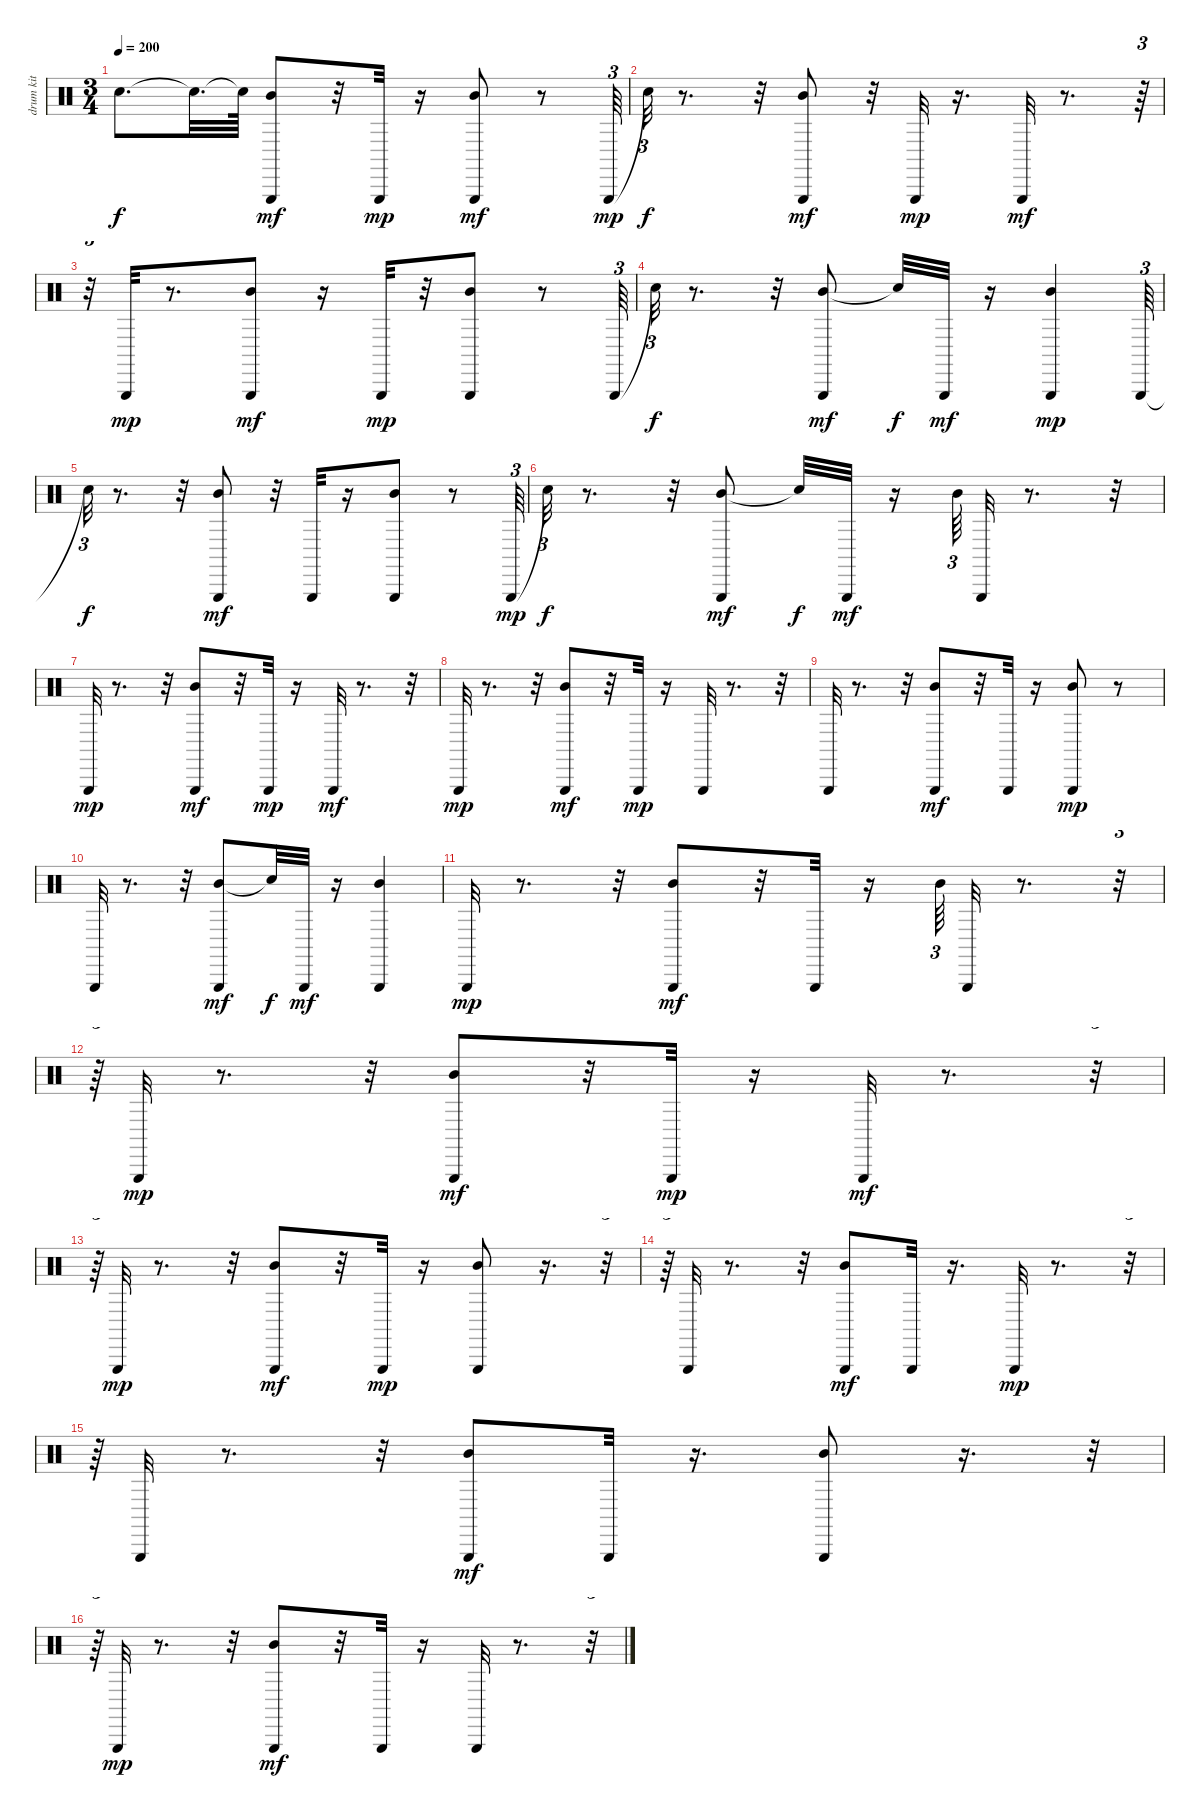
\track (" drum kit (hi-hat/cymbals)" " drum kit ") {instrument percussion}
\staff {score}
\articulation defaults
\ts (3 4)
\tempo 200
\clef neutral
\ks c "Snare (hit)"{t}.8{d dy f} "Snare (hit)"{t}.32{d} "Snare (hit)"{t}.64
("Mid Tom (hit)" "Triangle (hit)").8{dy mf} r.32 "Triangle (hit)".32{dy mp} r.16 ("Mid Tom (hit)" "Triangle (hit)").8{dy mf} r.8 "Triangle (hit)".64{tu (3 2) dy mp} |
"Snare (hit)"{t}.32{tu (3 2) dy f} r.8{d} r.32 ("Mid Tom (hit)" "Triangle (hit)").8{dy mf} r.32 "Triangle (hit)".32{dy mp} r.16{d} "Triangle (hit)".32{dy mf} r.8{d} r.64{tu (3 2)} |
r.32{tu (3 2)} "Triangle (hit)".32{dy mp} r.8{d} ("Mid Tom (hit)" "Triangle (hit)").8{dy mf} r.16 "Triangle (hit)".32{dy mp} r.32 ("Mid Tom (hit)" "Triangle (hit)").8 r.8 "Triangle (hit)".64{tu (3 2)} |
"Snare (hit)"{t}.32{tu (3 2) dy f} r.8{d} r.32 ("Mid Tom (hit)" "Triangle (hit)").8{dy mf} "Snare (hit)"{t}.32{dy f} "Triangle (hit)".32{dy mf} r.16 ("Mid Tom (hit)" "Triangle (hit)").4{dy mp} "Triangle (hit)".64{tu (3 2)} |
"Snare (hit)"{t}.32{tu (3 2) dy f} r.8{d} r.32 ("Mid Tom (hit)" "Triangle (hit)").8{dy mf} r.32 "Triangle (hit)".32 r.16 ("Mid Tom (hit)" "Triangle (hit)").8 r.8 "Triangle (hit)".64{tu (3 2) dy mp} |
"Snare (hit)"{t}.32{tu (3 2) dy f} r.8{d} r.32 ("Mid Tom (hit)" "Triangle (hit)").8{dy mf} "Snare (hit)"{t}.32{dy f} "Triangle (hit)".32{dy mf} r.16 "Mid Tom (hit)".64{tu (3 2)} "Triangle (hit)".32 r.8{d} r.32 |
"Triangle (hit)".32{dy mp} r.8{d} r.32 ("Mid Tom (hit)" "Triangle (hit)").8{dy mf} r.32 "Triangle (hit)".32{dy mp} r.16 "Triangle (hit)".32{dy mf} r.8{d} r.32 |
"Triangle (hit)".32{dy mp} r.8{d} r.32 ("Mid Tom (hit)" "Triangle (hit)").8{dy mf} r.32 "Triangle (hit)".32{dy mp} r.16 "Triangle (hit)".32 r.8{d} r.32 |
"Triangle (hit)".32 r.8{d} r.32 ("Mid Tom (hit)" "Triangle (hit)").8{dy mf} r.32 "Triangle (hit)".32 r.16 ("Mid Tom (hit)" "Triangle (hit)").8{dy mp} r.8 |
"Triangle (hit)".32 r.8{d} r.32 ("Mid Tom (hit)" "Triangle (hit)").8{dy mf} "Snare (hit)"{t}.32{dy f} "Triangle (hit)".32{dy mf} r.16 ("Mid Tom (hit)" "Triangle (hit)").4 |
"Triangle (hit)".32{dy mp} r.8{d} r.32 ("Mid Tom (hit)" "Triangle (hit)").8{dy mf} r.32 "Triangle (hit)".32 r.16 "Mid Tom (hit)".64{tu (3 2)} "Triangle (hit)".32 r.8{d} r.32{tu (3 2)} |
r.64{tu (3 2)} "Triangle (hit)".32{dy mp} r.8{d} r.32 ("Mid Tom (hit)" "Triangle (hit)").8{dy mf} r.32 "Triangle (hit)".32{dy mp} r.16 "Triangle (hit)".32{dy mf} r.8{d} r.32{tu (3 2)} |
r.64{tu (3 2)} "Triangle (hit)".32{dy mp} r.8{d} r.32 ("Mid Tom (hit)" "Triangle (hit)").8{dy mf} r.32 "Triangle (hit)".32{dy mp} r.16 ("Mid Tom (hit)" "Triangle (hit)").8 r.16{d} r.32{tu (3 2)} |
r.64{tu (3 2)} "Triangle (hit)".32 r.8{d} r.32 ("Mid Tom (hit)" "Triangle (hit)").8{dy mf} "Triangle (hit)".32 r.16{d} "Triangle (hit)".32{dy mp} r.8{d} r.32{tu (3 2)} |
r.64{tu (3 2)} "Triangle (hit)".32 r.8{d} r.32 ("Mid Tom (hit)" "Triangle (hit)").8{dy mf} "Triangle (hit)".32 r.16{d} ("Mid Tom (hit)" "Triangle (hit)").8 r.16{d} r.32{tu (3 2)} |
r.64{tu (3 2)} "Triangle (hit)".32{dy mp} r.8{d} r.32 ("Mid Tom (hit)" "Triangle (hit)").8{dy mf} r.32 "Triangle (hit)".32 r.16 "Triangle (hit)".32 r.8{d} r.32{tu (3 2)}
